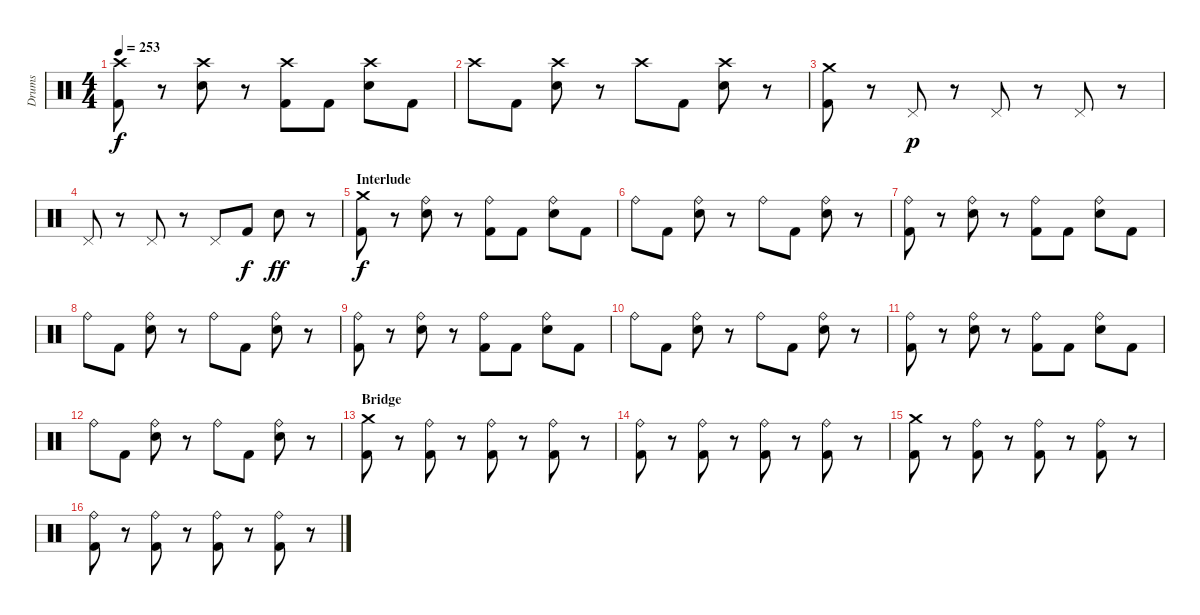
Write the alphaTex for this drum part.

\track ("Drums" "Drums") {instrument percussion}
\staff {score}
\articulation defaults
\ts (4 4)
\tempo 253
\clef neutral
\ks c
("Crash high (hit)" "Kick (hit) 2").8{dy f} r.8 ("Crash high (hit)" "Electric Snare (hit)").8 r.8 ("Crash high (hit)" "Kick (hit) 2").8 "Kick (hit) 2".8 ("Crash high (hit)" "Electric Snare (hit)").8 "Kick (hit) 2".8 |
"Crash high (hit)".8 "Kick (hit) 2".8 ("Crash high (hit)" "Electric Snare (hit)").8 r.8 "Crash high (hit)".8 "Kick (hit) 2".8 ("Crash high (hit)" "Electric Snare (hit)").8 r.8 |
("Crash medium (hit)" "Kick (hit) 2").8 r.8 "Pedal Hi-Hat (hit)".8{dy p} r.8 "Pedal Hi-Hat (hit)".8 r.8 "Pedal Hi-Hat (hit)".8 r.8 |
"Pedal Hi-Hat (hit)".8 r.8 "Pedal Hi-Hat (hit)".8 r.8 "Pedal Hi-Hat (hit)".8 "Kick (hit) 2".8{dy f} "Electric Snare (hit)".8{dy ff} r.8 |
\section ("" "Interlude")
("Crash medium (hit)" "Kick (hit) 2").8{dy f} r.8 ("Ride (bell)" "Electric Snare (hit)").8 r.8 ("Ride (bell)" "Kick (hit) 2").8 "Kick (hit) 2".8 ("Ride (bell)" "Electric Snare (hit)").8 "Kick (hit) 2".8 |
"Ride (bell)".8 "Kick (hit) 2".8 ("Ride (bell)" "Electric Snare (hit)").8 r.8 "Ride (bell)".8 "Kick (hit) 2".8 ("Ride (bell)" "Electric Snare (hit)").8 r.8 |
("Ride (bell)" "Kick (hit) 2").8 r.8 ("Ride (bell)" "Electric Snare (hit)").8 r.8 ("Ride (bell)" "Kick (hit) 2").8 "Kick (hit) 2".8 ("Ride (bell)" "Electric Snare (hit)").8 "Kick (hit) 2".8 |
"Ride (bell)".8 "Kick (hit) 2".8 ("Ride (bell)" "Electric Snare (hit)").8 r.8 "Ride (bell)".8 "Kick (hit) 2".8 ("Ride (bell)" "Electric Snare (hit)").8 r.8 |
("Ride (bell)" "Kick (hit) 2").8 r.8 ("Ride (bell)" "Electric Snare (hit)").8 r.8 ("Ride (bell)" "Kick (hit) 2").8 "Kick (hit) 2".8 ("Ride (bell)" "Electric Snare (hit)").8 "Kick (hit) 2".8 |
"Ride (bell)".8 "Kick (hit) 2".8 ("Ride (bell)" "Electric Snare (hit)").8 r.8 "Ride (bell)".8 "Kick (hit) 2".8 ("Ride (bell)" "Electric Snare (hit)").8 r.8 |
("Ride (bell)" "Kick (hit) 2").8 r.8 ("Ride (bell)" "Electric Snare (hit)").8 r.8 ("Ride (bell)" "Kick (hit) 2").8 "Kick (hit) 2".8 ("Ride (bell)" "Electric Snare (hit)").8 "Kick (hit) 2".8 |
"Ride (bell)".8 "Kick (hit) 2".8 ("Ride (bell)" "Electric Snare (hit)").8 r.8 "Ride (bell)".8 "Kick (hit) 2".8 ("Ride (bell)" "Electric Snare (hit)").8 r.8 |
\section ("" "Bridge")
("Crash medium (hit)" "Kick (hit) 2").8 r.8 ("Ride (bell)" "Kick (hit) 2").8 r.8 ("Ride (bell)" "Kick (hit) 2").8 r.8 ("Ride (bell)" "Kick (hit) 2").8 r.8 |
("Ride (bell)" "Kick (hit) 2").8 r.8 ("Ride (bell)" "Kick (hit) 2").8 r.8 ("Ride (bell)" "Kick (hit) 2").8 r.8 ("Ride (bell)" "Kick (hit) 2").8 r.8 |
("Crash medium (hit)" "Kick (hit) 2").8 r.8 ("Ride (bell)" "Kick (hit) 2").8 r.8 ("Ride (bell)" "Kick (hit) 2").8 r.8 ("Ride (bell)" "Kick (hit) 2").8 r.8 |
("Ride (bell)" "Kick (hit) 2").8 r.8 ("Ride (bell)" "Kick (hit) 2").8 r.8 ("Ride (bell)" "Kick (hit) 2").8 r.8 ("Ride (bell)" "Kick (hit) 2").8 r.8
